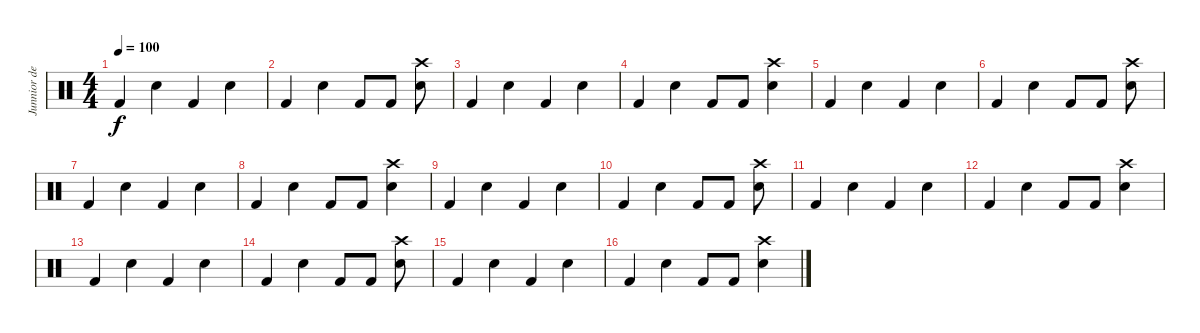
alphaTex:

\track ("Junnior de Jesus" "Junnior de") {instrument percussion}
\staff {score}
\articulation defaults
\ts (4 4)
\tempo 100
\clef neutral
\ks c "Kick (hit) 2".4{dy f} "Snare (hit) 2".4 "Kick (hit) 2".4 "Snare (hit) 2".4
|
"Kick (hit) 2".4 "Snare (hit) 2".4 "Kick (hit) 2".8 "Kick (hit) 2".8 ("Snare (hit) 2" "Crash high (hit)").8 |
"Kick (hit) 2".4 "Snare (hit) 2".4 "Kick (hit) 2".4 "Snare (hit) 2".4 |
"Kick (hit) 2".4 "Snare (hit) 2".4 "Kick (hit) 2".8 "Kick (hit) 2".8 ("Snare (hit) 2" "Crash high (hit)").4 |
"Kick (hit) 2".4 "Snare (hit) 2".4 "Kick (hit) 2".4 "Snare (hit) 2".4 |
"Kick (hit) 2".4 "Snare (hit) 2".4 "Kick (hit) 2".8 "Kick (hit) 2".8 ("Snare (hit) 2" "Crash high (hit)").8 |
"Kick (hit) 2".4 "Snare (hit) 2".4 "Kick (hit) 2".4 "Snare (hit) 2".4 |
"Kick (hit) 2".4 "Snare (hit) 2".4 "Kick (hit) 2".8 "Kick (hit) 2".8 ("Snare (hit) 2" "Crash high (hit)").4 |
"Kick (hit) 2".4 "Snare (hit) 2".4 "Kick (hit) 2".4 "Snare (hit) 2".4 |
"Kick (hit) 2".4 "Snare (hit) 2".4 "Kick (hit) 2".8 "Kick (hit) 2".8 ("Snare (hit) 2" "Crash high (hit)").8 |
"Kick (hit) 2".4 "Snare (hit) 2".4 "Kick (hit) 2".4 "Snare (hit) 2".4 |
"Kick (hit) 2".4 "Snare (hit) 2".4 "Kick (hit) 2".8 "Kick (hit) 2".8 ("Snare (hit) 2" "Crash high (hit)").4 |
"Kick (hit) 2".4 "Snare (hit) 2".4 "Kick (hit) 2".4 "Snare (hit) 2".4 |
"Kick (hit) 2".4 "Snare (hit) 2".4 "Kick (hit) 2".8 "Kick (hit) 2".8 ("Snare (hit) 2" "Crash high (hit)").8 |
"Kick (hit) 2".4 "Snare (hit) 2".4 "Kick (hit) 2".4 "Snare (hit) 2".4 |
"Kick (hit) 2".4 "Snare (hit) 2".4 "Kick (hit) 2".8 "Kick (hit) 2".8 ("Snare (hit) 2" "Crash high (hit)").4
